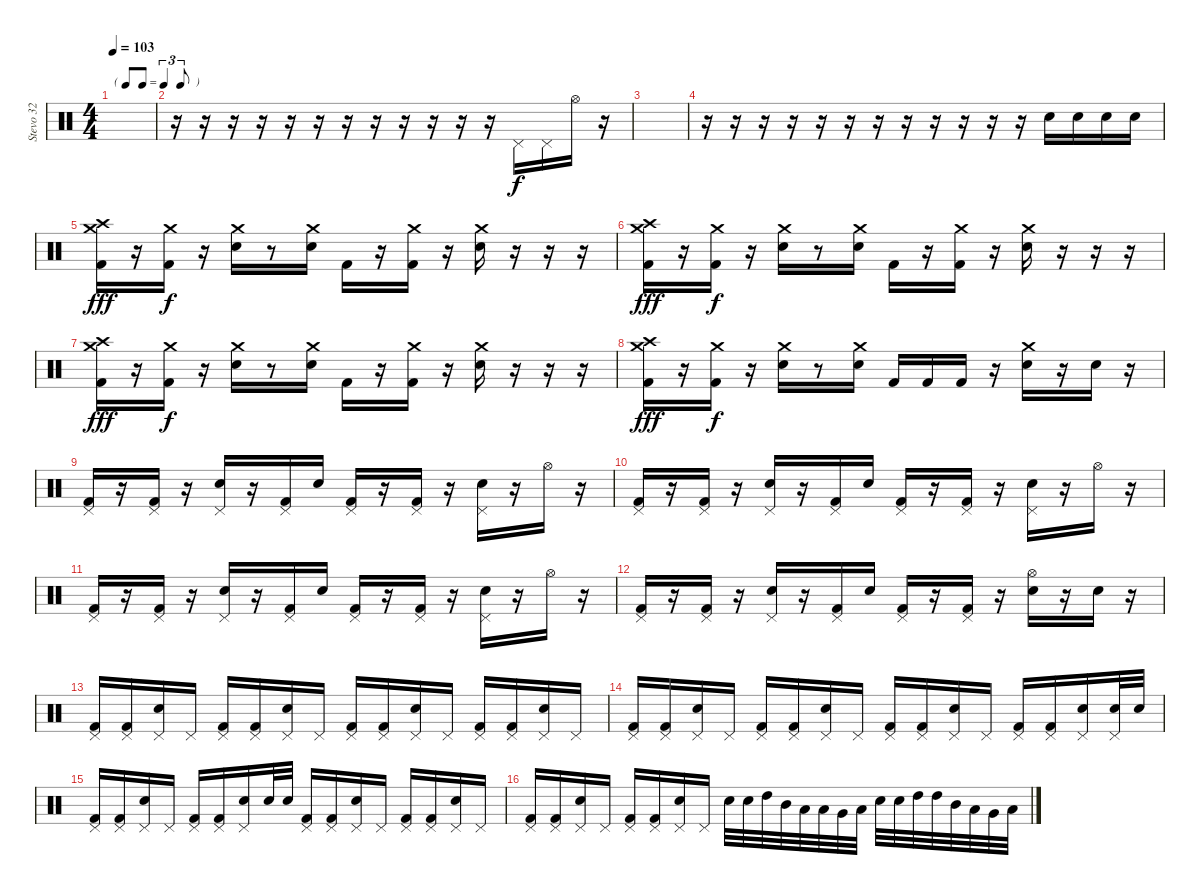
\track ("Stevo 32" "Stevo 32") {instrument percussion}
\staff {score}
\articulation defaults
\ts (4 4)
\tf triplet8th
\tempo 103
\clef neutral
\ks c
|
r.16 r.16 r.16 r.16 r.16 r.16 r.16 r.16 r.16 r.16 r.16 r.16 "Pedal Hi-Hat (hit)".16 "Pedal Hi-Hat (hit)".16 "Hi-Hat (open)".16 r.16 |
|
r.16 r.16 r.16 r.16 r.16 r.16 r.16 r.16 r.16 r.16 r.16 r.16 "Electric Snare (hit)".16 "Electric Snare (hit)".16 "Electric Snare (hit)".16 "Electric Snare (hit)".16 |
("Crash high (hit)" "Crash medium (hit)" "Kick (hit) 2").16{dy fff} r.16 ("Crash medium (hit)" "Kick (hit) 2").16{dy f} r.16 ("Crash medium (hit)" "Electric Snare (hit)").16 r.8 ("Crash medium (hit)" "Electric Snare (hit)").16 "Kick (hit) 2".16 r.16 ("Crash medium (hit)" "Kick (hit) 2").16 r.16 ("Crash medium (hit)" "Electric Snare (hit)").16 r.16 r.16 r.16 |
("Crash high (hit)" "Crash medium (hit)" "Kick (hit) 2").16{dy fff} r.16 ("Crash medium (hit)" "Kick (hit) 2").16{dy f} r.16 ("Crash medium (hit)" "Electric Snare (hit)").16 r.8 ("Crash medium (hit)" "Electric Snare (hit)").16 "Kick (hit) 2".16 r.16 ("Crash medium (hit)" "Kick (hit) 2").16 r.16 ("Crash medium (hit)" "Electric Snare (hit)").16 r.16 r.16 r.16 |
("Crash high (hit)" "Crash medium (hit)" "Kick (hit) 2").16{dy fff} r.16 ("Crash medium (hit)" "Kick (hit) 2").16{dy f} r.16 ("Crash medium (hit)" "Electric Snare (hit)").16 r.8 ("Crash medium (hit)" "Electric Snare (hit)").16 "Kick (hit) 2".16 r.16 ("Crash medium (hit)" "Kick (hit) 2").16 r.16 ("Crash medium (hit)" "Electric Snare (hit)").16 r.16 r.16 r.16 |
("Crash high (hit)" "Crash medium (hit)" "Kick (hit) 2").16{dy fff} r.16 ("Crash medium (hit)" "Kick (hit) 2").16{dy f} r.16 ("Crash medium (hit)" "Electric Snare (hit)").16 r.8 ("Crash medium (hit)" "Electric Snare (hit)").16 "Kick (hit) 2".16 "Kick (hit) 2".16 "Kick (hit) 2".16 r.16 ("Crash medium (hit)" "Electric Snare (hit)").16 r.16 "Electric Snare (hit)".16 r.16 |
("Pedal Hi-Hat (hit)" "Kick (hit) 2").16 r.16 ("Pedal Hi-Hat (hit)" "Kick (hit) 2").16 r.16 ("Pedal Hi-Hat (hit)" "Electric Snare (hit)").16 r.16 ("Pedal Hi-Hat (hit)" "Kick (hit) 2").16 "Electric Snare (hit)".16 ("Pedal Hi-Hat (hit)" "Kick (hit) 2").16 r.16 ("Pedal Hi-Hat (hit)" "Kick (hit) 2").16 r.16 ("Pedal Hi-Hat (hit)" "Electric Snare (hit)").16 r.16 "Hi-Hat (open)".16 r.16 |
("Pedal Hi-Hat (hit)" "Kick (hit) 2").16 r.16 ("Pedal Hi-Hat (hit)" "Kick (hit) 2").16 r.16 ("Pedal Hi-Hat (hit)" "Electric Snare (hit)").16 r.16 ("Pedal Hi-Hat (hit)" "Kick (hit) 2").16 "Electric Snare (hit)".16 ("Pedal Hi-Hat (hit)" "Kick (hit) 2").16 r.16 ("Pedal Hi-Hat (hit)" "Kick (hit) 2").16 r.16 ("Pedal Hi-Hat (hit)" "Electric Snare (hit)").16 r.16 "Hi-Hat (open)".16 r.16 |
("Pedal Hi-Hat (hit)" "Kick (hit) 2").16 r.16 ("Pedal Hi-Hat (hit)" "Kick (hit) 2").16 r.16 ("Pedal Hi-Hat (hit)" "Electric Snare (hit)").16 r.16 ("Pedal Hi-Hat (hit)" "Kick (hit) 2").16 "Electric Snare (hit)".16 ("Pedal Hi-Hat (hit)" "Kick (hit) 2").16 r.16 ("Pedal Hi-Hat (hit)" "Kick (hit) 2").16 r.16 ("Pedal Hi-Hat (hit)" "Electric Snare (hit)").16 r.16 "Hi-Hat (open)".16 r.16 |
("Pedal Hi-Hat (hit)" "Kick (hit) 2").16 r.16 ("Pedal Hi-Hat (hit)" "Kick (hit) 2").16 r.16 ("Pedal Hi-Hat (hit)" "Electric Snare (hit)").16 r.16 ("Pedal Hi-Hat (hit)" "Kick (hit) 2").16 "Electric Snare (hit)".16 ("Pedal Hi-Hat (hit)" "Kick (hit) 2").16 r.16 ("Pedal Hi-Hat (hit)" "Kick (hit) 2").16 r.16 ("Hi-Hat (open)" "Electric Snare (hit)").16 r.16 "Electric Snare (hit)".16 r.16 |
("Pedal Hi-Hat (hit)" "Kick (hit) 2").16 ("Pedal Hi-Hat (hit)" "Kick (hit) 2").16 ("Pedal Hi-Hat (hit)" "Electric Snare (hit)").16 "Pedal Hi-Hat (hit)".16 ("Pedal Hi-Hat (hit)" "Kick (hit) 2").16 ("Pedal Hi-Hat (hit)" "Kick (hit) 2").16 ("Pedal Hi-Hat (hit)" "Electric Snare (hit)").16 "Pedal Hi-Hat (hit)".16 ("Pedal Hi-Hat (hit)" "Kick (hit) 2").16 ("Pedal Hi-Hat (hit)" "Kick (hit) 2").16 ("Pedal Hi-Hat (hit)" "Electric Snare (hit)").16 "Pedal Hi-Hat (hit)".16 ("Pedal Hi-Hat (hit)" "Kick (hit) 2").16 ("Pedal Hi-Hat (hit)" "Kick (hit) 2").16 ("Pedal Hi-Hat (hit)" "Electric Snare (hit)").16 "Pedal Hi-Hat (hit)".16 |
("Pedal Hi-Hat (hit)" "Kick (hit) 2").16 ("Pedal Hi-Hat (hit)" "Kick (hit) 2").16 ("Pedal Hi-Hat (hit)" "Electric Snare (hit)").16 "Pedal Hi-Hat (hit)".16 ("Pedal Hi-Hat (hit)" "Kick (hit) 2").16 ("Pedal Hi-Hat (hit)" "Kick (hit) 2").16 ("Pedal Hi-Hat (hit)" "Electric Snare (hit)").16 "Pedal Hi-Hat (hit)".16 ("Pedal Hi-Hat (hit)" "Kick (hit) 2").16 ("Pedal Hi-Hat (hit)" "Kick (hit) 2").16 ("Pedal Hi-Hat (hit)" "Electric Snare (hit)").16 "Pedal Hi-Hat (hit)".16 ("Pedal Hi-Hat (hit)" "Kick (hit) 2").16 ("Pedal Hi-Hat (hit)" "Kick (hit) 2").16 ("Pedal Hi-Hat (hit)" "Electric Snare (hit)").16 ("Pedal Hi-Hat (hit)" "Electric Snare (hit)").32 "Electric Snare (hit)".32 |
("Pedal Hi-Hat (hit)" "Kick (hit) 2").16 ("Pedal Hi-Hat (hit)" "Kick (hit) 2").16 ("Pedal Hi-Hat (hit)" "Electric Snare (hit)").16 "Pedal Hi-Hat (hit)".16 ("Pedal Hi-Hat (hit)" "Kick (hit) 2").16 ("Pedal Hi-Hat (hit)" "Kick (hit) 2").16 ("Pedal Hi-Hat (hit)" "Electric Snare (hit)").16 "Electric Snare (hit)".32 "Electric Snare (hit)".32 ("Pedal Hi-Hat (hit)" "Kick (hit) 2").16 ("Pedal Hi-Hat (hit)" "Kick (hit) 2").16 ("Pedal Hi-Hat (hit)" "Electric Snare (hit)").16 "Pedal Hi-Hat (hit)".16 ("Pedal Hi-Hat (hit)" "Kick (hit) 2").16 ("Pedal Hi-Hat (hit)" "Kick (hit) 2").16 ("Pedal Hi-Hat (hit)" "Electric Snare (hit)").16 "Pedal Hi-Hat (hit)".16 |
("Pedal Hi-Hat (hit)" "Kick (hit) 2").16 ("Pedal Hi-Hat (hit)" "Kick (hit) 2").16 ("Pedal Hi-Hat (hit)" "Electric Snare (hit)").16 "Pedal Hi-Hat (hit)".16 ("Pedal Hi-Hat (hit)" "Kick (hit) 2").16 ("Pedal Hi-Hat (hit)" "Kick (hit) 2").16 ("Pedal Hi-Hat (hit)" "Electric Snare (hit)").16 "Pedal Hi-Hat (hit)".16 "Electric Snare (hit)".32 "Electric Snare (hit)".32 "High Tom (hit)".32 "Mid Tom (hit)".32 "Low Tom (hit)".32 "Low Tom (hit)".32 "Very Low Tom (hit)".32 "Low Floor Tom (hit)".32 "Electric Snare (hit)".32 "Electric Snare (hit)".32 "High Tom (hit)".32 "High Tom (hit)".32 "Mid Tom (hit)".32 "Low Tom (hit)".32 "Very Low Tom (hit)".32 "Low Floor Tom (hit)".32
